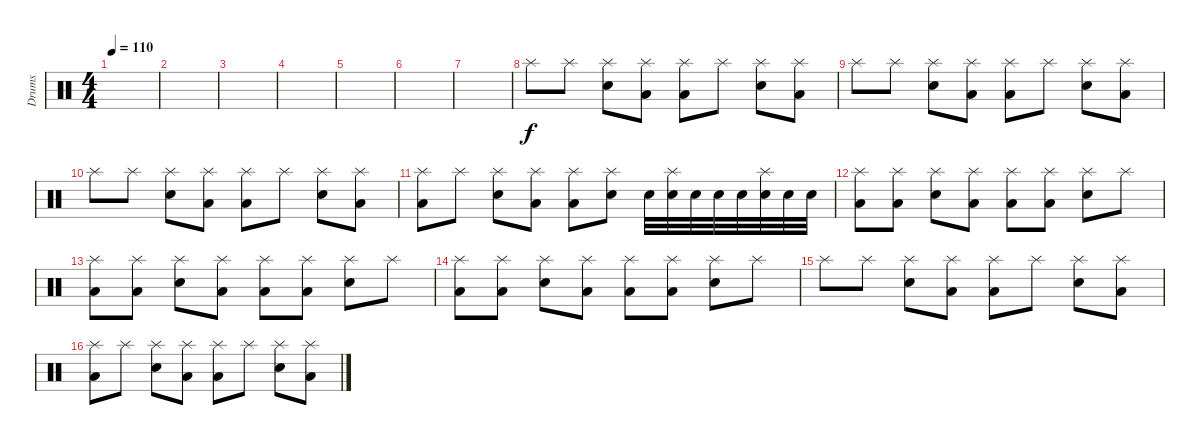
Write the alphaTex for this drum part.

\track ("Drums" "Drums") {instrument percussion}
\staff {score}
\articulation defaults
\ts (4 4)
\tempo 110
\clef neutral
\ks c
|
|
|
|
|
|
|
"Splash (hit)".8 "Splash (hit)".8 ("Splash (hit)" "Snare (hit) 2").8 ("Splash (hit)" "Low Floor Tom (hit)").8 ("Splash (hit)" "Low Floor Tom (hit)").8 "Splash (hit)".8 ("Splash (hit)" "Snare (hit) 2").8 ("Splash (hit)" "Low Floor Tom (hit)").8 |
"Splash (hit)".8 "Splash (hit)".8 ("Splash (hit)" "Snare (hit) 2").8 ("Splash (hit)" "Low Floor Tom (hit)").8 ("Splash (hit)" "Low Floor Tom (hit)").8 "Splash (hit)".8 ("Splash (hit)" "Snare (hit) 2").8 ("Splash (hit)" "Low Floor Tom (hit)").8 |
"Splash (hit)".8 "Splash (hit)".8 ("Splash (hit)" "Snare (hit) 2").8 ("Splash (hit)" "Low Floor Tom (hit)").8 ("Splash (hit)" "Low Floor Tom (hit)").8 "Splash (hit)".8 ("Splash (hit)" "Snare (hit) 2").8 ("Splash (hit)" "Low Floor Tom (hit)").8 |
("Splash (hit)" "Low Floor Tom (hit)").8 "Splash (hit)".8 ("Splash (hit)" "Snare (hit) 2").8 ("Splash (hit)" "Low Floor Tom (hit)").8 ("Splash (hit)" "Low Floor Tom (hit)").8 ("Splash (hit)" "Snare (hit) 2").8 "Snare (hit) 2".32 ("Splash (hit)" "Snare (hit) 2").32 "Snare (hit) 2".32 "Snare (hit) 2".32 "Snare (hit) 2".32 ("Splash (hit)" "Snare (hit) 2").32 "Snare (hit) 2".32 "Snare (hit) 2".32 |
("Splash (hit)" "Low Floor Tom (hit)").8 ("Splash (hit)" "Low Floor Tom (hit)").8 ("Splash (hit)" "Snare (hit) 2").8 ("Splash (hit)" "Low Floor Tom (hit)").8 ("Splash (hit)" "Low Floor Tom (hit)").8 ("Splash (hit)" "Low Floor Tom (hit)").8 ("Splash (hit)" "Snare (hit) 2").8 "Splash (hit)".8 |
("Splash (hit)" "Low Floor Tom (hit)").8 ("Splash (hit)" "Low Floor Tom (hit)").8 ("Splash (hit)" "Snare (hit) 2").8 ("Splash (hit)" "Low Floor Tom (hit)").8 ("Splash (hit)" "Low Floor Tom (hit)").8 ("Splash (hit)" "Low Floor Tom (hit)").8 ("Splash (hit)" "Snare (hit) 2").8 "Splash (hit)".8 |
("Splash (hit)" "Low Floor Tom (hit)").8 ("Splash (hit)" "Low Floor Tom (hit)").8 ("Splash (hit)" "Snare (hit) 2").8 ("Splash (hit)" "Low Floor Tom (hit)").8 ("Splash (hit)" "Low Floor Tom (hit)").8 ("Splash (hit)" "Low Floor Tom (hit)").8 ("Splash (hit)" "Snare (hit) 2").8 "Splash (hit)".8 |
"Splash (hit)".8 "Splash (hit)".8 ("Splash (hit)" "Snare (hit) 2").8 ("Splash (hit)" "Low Floor Tom (hit)").8 ("Splash (hit)" "Low Floor Tom (hit)").8 "Splash (hit)".8 ("Splash (hit)" "Snare (hit) 2").8 ("Splash (hit)" "Low Floor Tom (hit)").8 |
("Splash (hit)" "Low Floor Tom (hit)").8 "Splash (hit)".8 ("Splash (hit)" "Snare (hit) 2").8 ("Splash (hit)" "Low Floor Tom (hit)").8 ("Splash (hit)" "Low Floor Tom (hit)").8 "Splash (hit)".8 ("Splash (hit)" "Snare (hit) 2").8 ("Splash (hit)" "Low Floor Tom (hit)").8
